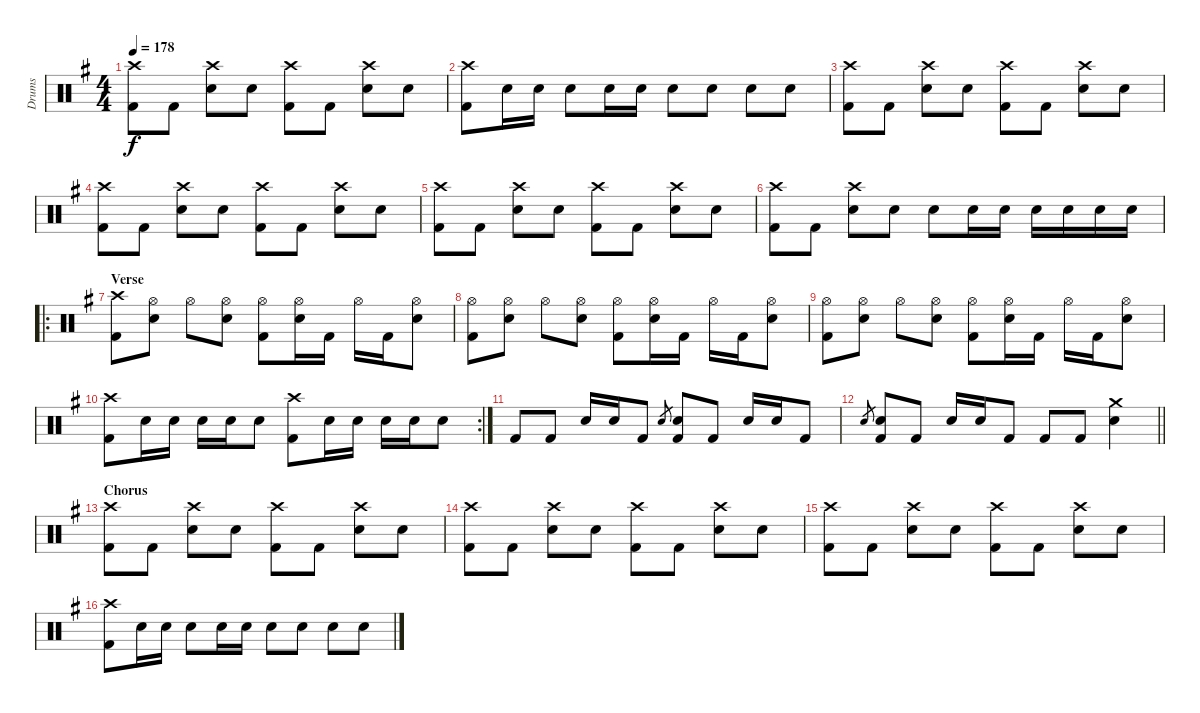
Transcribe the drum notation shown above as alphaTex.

\track ("Drums" "Drums") {instrument percussion}
\staff {score}
\articulation defaults
\ts (4 4)
\tempo 178
\clef neutral
\ks g
("Kick (hit) 2" "Crash high (hit)").8{dy f} "Kick (hit) 2".8 ("Crash high (hit)" "Snare (hit) 2").8 "Snare (hit) 2".8 ("Kick (hit) 2" "Crash high (hit)").8 "Kick (hit) 2".8 ("Crash high (hit)" "Snare (hit) 2").8 "Snare (hit) 2".8 |
("Kick (hit) 2" "Crash high (hit)").8 "Snare (hit) 2".16 "Snare (hit) 2".16 "Snare (hit) 2".8 "Snare (hit) 2".16 "Snare (hit) 2".16 "Snare (hit) 2".8 "Snare (hit) 2".8 "Snare (hit) 2".8 "Snare (hit) 2".8 |
("Kick (hit) 2" "Crash high (hit)").8 "Kick (hit) 2".8 ("Crash high (hit)" "Snare (hit) 2").8 "Snare (hit) 2".8 ("Kick (hit) 2" "Crash high (hit)").8 "Kick (hit) 2".8 ("Crash high (hit)" "Snare (hit) 2").8 "Snare (hit) 2".8 |
("Kick (hit) 2" "Crash high (hit)").8 "Kick (hit) 2".8 ("Crash high (hit)" "Snare (hit) 2").8 "Snare (hit) 2".8 ("Kick (hit) 2" "Crash high (hit)").8 "Kick (hit) 2".8 ("Crash high (hit)" "Snare (hit) 2").8 "Snare (hit) 2".8 |
("Kick (hit) 2" "Crash high (hit)").8 "Kick (hit) 2".8 ("Crash high (hit)" "Snare (hit) 2").8 "Snare (hit) 2".8 ("Kick (hit) 2" "Crash high (hit)").8 "Kick (hit) 2".8 ("Crash high (hit)" "Snare (hit) 2").8 "Snare (hit) 2".8 |
("Kick (hit) 2" "Crash high (hit)").8 "Kick (hit) 2".8 ("Crash high (hit)" "Snare (hit) 2").8 "Snare (hit) 2".8 "Snare (hit) 2".8 "Snare (hit) 2".16 "Snare (hit) 2".16 "Snare (hit) 2".16 "Snare (hit) 2".16 "Snare (hit) 2".16 "Snare (hit) 2".16 |
\ro
\section ("" "Verse")
("Kick (hit) 2" "Crash high (hit)").8 ("Snare (hit) 2" "Hi-Hat (open)").8 "Hi-Hat (open)".8 ("Snare (hit) 2" "Hi-Hat (open)").8 ("Kick (hit) 2" "Hi-Hat (open)").8 ("Snare (hit) 2" "Hi-Hat (open)").16 "Kick (hit) 2".16 "Hi-Hat (open)".16 "Kick (hit) 2".16 ("Snare (hit) 2" "Hi-Hat (open)").8 |
("Kick (hit) 2" "Hi-Hat (open)").8 ("Snare (hit) 2" "Hi-Hat (open)").8 "Hi-Hat (open)".8 ("Snare (hit) 2" "Hi-Hat (open)").8 ("Kick (hit) 2" "Hi-Hat (open)").8 ("Snare (hit) 2" "Hi-Hat (open)").16 "Kick (hit) 2".16 "Hi-Hat (open)".16 "Kick (hit) 2".16 ("Snare (hit) 2" "Hi-Hat (open)").8 |
("Kick (hit) 2" "Hi-Hat (open)").8 ("Snare (hit) 2" "Hi-Hat (open)").8 "Hi-Hat (open)".8 ("Snare (hit) 2" "Hi-Hat (open)").8 ("Kick (hit) 2" "Hi-Hat (open)").8 ("Snare (hit) 2" "Hi-Hat (open)").16 "Kick (hit) 2".16 "Hi-Hat (open)".16 "Kick (hit) 2".16 ("Snare (hit) 2" "Hi-Hat (open)").8 |
\rc 2
("Kick (hit) 2" "Crash high (hit)").8 "Snare (hit) 2".16 "Snare (hit) 2".16 "Snare (hit) 2".16 "Snare (hit) 2".16 "Snare (hit) 2".8 ("Kick (hit) 2" "Crash high (hit)").8 "Snare (hit) 2".16 "Snare (hit) 2".16 "Snare (hit) 2".16 "Snare (hit) 2".16 "Snare (hit) 2".8 |
"Kick (hit) 2".8 "Kick (hit) 2".8 "Snare (hit) 2".16 "Snare (hit) 2".16 "Kick (hit) 2".8 "Snare (hit) 2".8{gr} ("Kick (hit) 2" "Snare (hit) 2").8 "Kick (hit) 2".8 "Snare (hit) 2".16 "Snare (hit) 2".16 "Kick (hit) 2".8 |
\barLineRight lightlight "Snare (hit) 2".8{gr}
("Kick (hit) 2" "Snare (hit) 2").8 "Kick (hit) 2".8 "Snare (hit) 2".16 "Snare (hit) 2".16 "Kick (hit) 2".8 "Kick (hit) 2".8 "Kick (hit) 2".8 ("Crash medium (hit)" "Snare (hit) 2").4 |
\section ("" "Chorus")
("Kick (hit) 2" "Crash high (hit)").8 "Kick (hit) 2".8 ("Crash high (hit)" "Snare (hit) 2").8 "Snare (hit) 2".8 ("Kick (hit) 2" "Crash high (hit)").8 "Kick (hit) 2".8 ("Crash high (hit)" "Snare (hit) 2").8 "Snare (hit) 2".8 |
("Kick (hit) 2" "Crash high (hit)").8 "Kick (hit) 2".8 ("Crash high (hit)" "Snare (hit) 2").8 "Snare (hit) 2".8 ("Kick (hit) 2" "Crash high (hit)").8 "Kick (hit) 2".8 ("Crash high (hit)" "Snare (hit) 2").8 "Snare (hit) 2".8 |
("Kick (hit) 2" "Crash high (hit)").8 "Kick (hit) 2".8 ("Crash high (hit)" "Snare (hit) 2").8 "Snare (hit) 2".8 ("Kick (hit) 2" "Crash high (hit)").8 "Kick (hit) 2".8 ("Crash high (hit)" "Snare (hit) 2").8 "Snare (hit) 2".8 |
("Kick (hit) 2" "Crash high (hit)").8 "Snare (hit) 2".16 "Snare (hit) 2".16 "Snare (hit) 2".8 "Snare (hit) 2".16 "Snare (hit) 2".16 "Snare (hit) 2".8 "Snare (hit) 2".8 "Snare (hit) 2".8 "Snare (hit) 2".8
